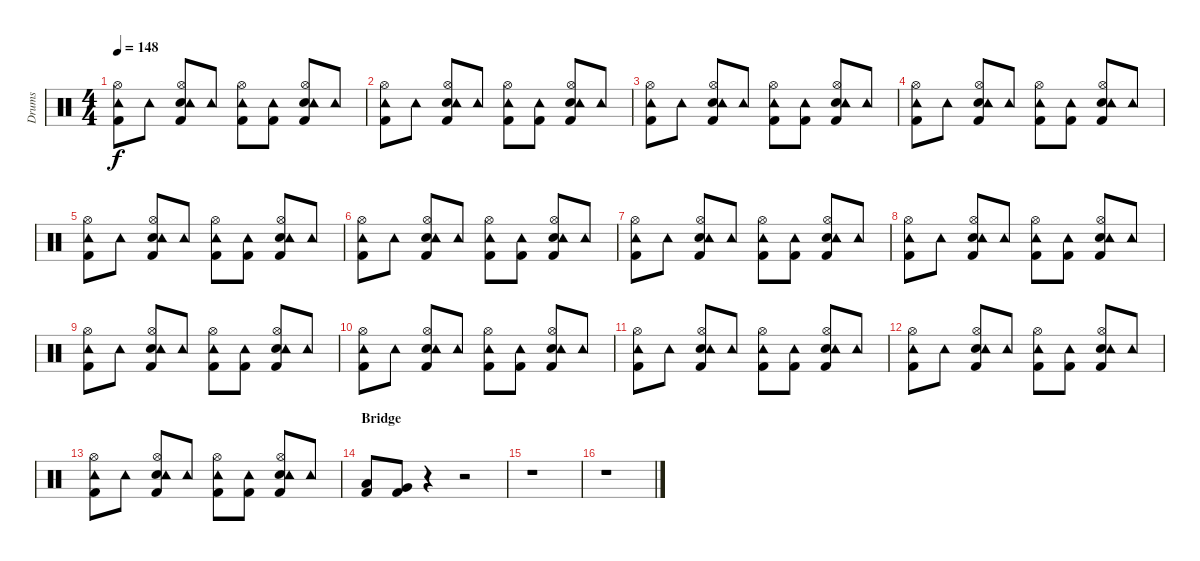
\track ("Drums" "Drums") {instrument percussion}
\staff {score}
\articulation defaults
\ts (4 4)
\tempo 148
\clef neutral
\ks c
("Kick (hit) 2" "Tambourine (hit)" "Hi-Hat (open)").8{dy f} "Tambourine (hit)".8 ("Kick (hit) 2" "Electric Snare (hit)" "Tambourine (hit)" "Hi-Hat (open)").8 "Tambourine (hit)".8 ("Kick (hit) 2" "Tambourine (hit)" "Hi-Hat (open)").8 ("Kick (hit) 2" "Tambourine (hit)").8 ("Kick (hit) 2" "Electric Snare (hit)" "Tambourine (hit)" "Hi-Hat (open)").8 "Tambourine (hit)".8 |
("Kick (hit) 2" "Tambourine (hit)" "Hi-Hat (open)").8 "Tambourine (hit)".8 ("Kick (hit) 2" "Electric Snare (hit)" "Tambourine (hit)" "Hi-Hat (open)").8 "Tambourine (hit)".8 ("Kick (hit) 2" "Tambourine (hit)" "Hi-Hat (open)").8 ("Kick (hit) 2" "Tambourine (hit)").8 ("Kick (hit) 2" "Electric Snare (hit)" "Tambourine (hit)" "Hi-Hat (open)").8 "Tambourine (hit)".8 |
("Kick (hit) 2" "Tambourine (hit)" "Hi-Hat (open)").8 "Tambourine (hit)".8 ("Kick (hit) 2" "Electric Snare (hit)" "Tambourine (hit)" "Hi-Hat (open)").8 "Tambourine (hit)".8 ("Kick (hit) 2" "Tambourine (hit)" "Hi-Hat (open)").8 ("Kick (hit) 2" "Tambourine (hit)").8 ("Kick (hit) 2" "Electric Snare (hit)" "Tambourine (hit)" "Hi-Hat (open)").8 "Tambourine (hit)".8 |
("Kick (hit) 2" "Tambourine (hit)" "Hi-Hat (open)").8 "Tambourine (hit)".8 ("Kick (hit) 2" "Electric Snare (hit)" "Tambourine (hit)" "Hi-Hat (open)").8 "Tambourine (hit)".8 ("Kick (hit) 2" "Tambourine (hit)" "Hi-Hat (open)").8 ("Kick (hit) 2" "Tambourine (hit)").8 ("Kick (hit) 2" "Electric Snare (hit)" "Tambourine (hit)" "Hi-Hat (open)").8 "Tambourine (hit)".8 |
("Kick (hit) 2" "Tambourine (hit)" "Hi-Hat (open)").8 "Tambourine (hit)".8 ("Kick (hit) 2" "Electric Snare (hit)" "Tambourine (hit)" "Hi-Hat (open)").8 "Tambourine (hit)".8 ("Kick (hit) 2" "Tambourine (hit)" "Hi-Hat (open)").8 ("Kick (hit) 2" "Tambourine (hit)").8 ("Kick (hit) 2" "Electric Snare (hit)" "Tambourine (hit)" "Hi-Hat (open)").8 "Tambourine (hit)".8 |
("Kick (hit) 2" "Tambourine (hit)" "Hi-Hat (open)").8 "Tambourine (hit)".8 ("Kick (hit) 2" "Electric Snare (hit)" "Tambourine (hit)" "Hi-Hat (open)").8 "Tambourine (hit)".8 ("Kick (hit) 2" "Tambourine (hit)" "Hi-Hat (open)").8 ("Kick (hit) 2" "Tambourine (hit)").8 ("Kick (hit) 2" "Electric Snare (hit)" "Tambourine (hit)" "Hi-Hat (open)").8 "Tambourine (hit)".8 |
("Kick (hit) 2" "Tambourine (hit)" "Hi-Hat (open)").8 "Tambourine (hit)".8 ("Kick (hit) 2" "Electric Snare (hit)" "Tambourine (hit)" "Hi-Hat (open)").8 "Tambourine (hit)".8 ("Kick (hit) 2" "Tambourine (hit)" "Hi-Hat (open)").8 ("Kick (hit) 2" "Tambourine (hit)").8 ("Kick (hit) 2" "Electric Snare (hit)" "Tambourine (hit)" "Hi-Hat (open)").8 "Tambourine (hit)".8 |
("Kick (hit) 2" "Tambourine (hit)" "Hi-Hat (open)").8 "Tambourine (hit)".8 ("Kick (hit) 2" "Electric Snare (hit)" "Tambourine (hit)" "Hi-Hat (open)").8 "Tambourine (hit)".8 ("Kick (hit) 2" "Tambourine (hit)" "Hi-Hat (open)").8 ("Kick (hit) 2" "Tambourine (hit)").8 ("Kick (hit) 2" "Electric Snare (hit)" "Tambourine (hit)" "Hi-Hat (open)").8 "Tambourine (hit)".8 |
("Kick (hit) 2" "Tambourine (hit)" "Hi-Hat (open)").8 "Tambourine (hit)".8 ("Kick (hit) 2" "Electric Snare (hit)" "Tambourine (hit)" "Hi-Hat (open)").8 "Tambourine (hit)".8 ("Kick (hit) 2" "Tambourine (hit)" "Hi-Hat (open)").8 ("Kick (hit) 2" "Tambourine (hit)").8 ("Kick (hit) 2" "Electric Snare (hit)" "Tambourine (hit)" "Hi-Hat (open)").8 "Tambourine (hit)".8 |
("Kick (hit) 2" "Tambourine (hit)" "Hi-Hat (open)").8 "Tambourine (hit)".8 ("Kick (hit) 2" "Electric Snare (hit)" "Tambourine (hit)" "Hi-Hat (open)").8 "Tambourine (hit)".8 ("Kick (hit) 2" "Tambourine (hit)" "Hi-Hat (open)").8 ("Kick (hit) 2" "Tambourine (hit)").8 ("Kick (hit) 2" "Electric Snare (hit)" "Tambourine (hit)" "Hi-Hat (open)").8 "Tambourine (hit)".8 |
("Kick (hit) 2" "Tambourine (hit)" "Hi-Hat (open)").8 "Tambourine (hit)".8 ("Kick (hit) 2" "Electric Snare (hit)" "Tambourine (hit)" "Hi-Hat (open)").8 "Tambourine (hit)".8 ("Kick (hit) 2" "Tambourine (hit)" "Hi-Hat (open)").8 ("Kick (hit) 2" "Tambourine (hit)").8 ("Kick (hit) 2" "Electric Snare (hit)" "Tambourine (hit)" "Hi-Hat (open)").8 "Tambourine (hit)".8 |
("Kick (hit) 2" "Tambourine (hit)" "Hi-Hat (open)").8 "Tambourine (hit)".8 ("Kick (hit) 2" "Electric Snare (hit)" "Tambourine (hit)" "Hi-Hat (open)").8 "Tambourine (hit)".8 ("Kick (hit) 2" "Tambourine (hit)" "Hi-Hat (open)").8 ("Kick (hit) 2" "Tambourine (hit)").8 ("Kick (hit) 2" "Electric Snare (hit)" "Tambourine (hit)" "Hi-Hat (open)").8 "Tambourine (hit)".8 |
("Kick (hit) 2" "Tambourine (hit)" "Hi-Hat (open)").8 "Tambourine (hit)".8 ("Kick (hit) 2" "Electric Snare (hit)" "Tambourine (hit)" "Hi-Hat (open)").8 "Tambourine (hit)".8 ("Kick (hit) 2" "Tambourine (hit)" "Hi-Hat (open)").8 ("Kick (hit) 2" "Tambourine (hit)").8 ("Kick (hit) 2" "Electric Snare (hit)" "Tambourine (hit)" "Hi-Hat (open)").8 "Tambourine (hit)".8 |
\section ("" "Bridge")
("Kick (hit) 2" "Low Tom (hit)").8 ("Kick (hit) 2" "Very Low Tom (hit)").8 r.4 r.2 |
r.1 |
r.1
